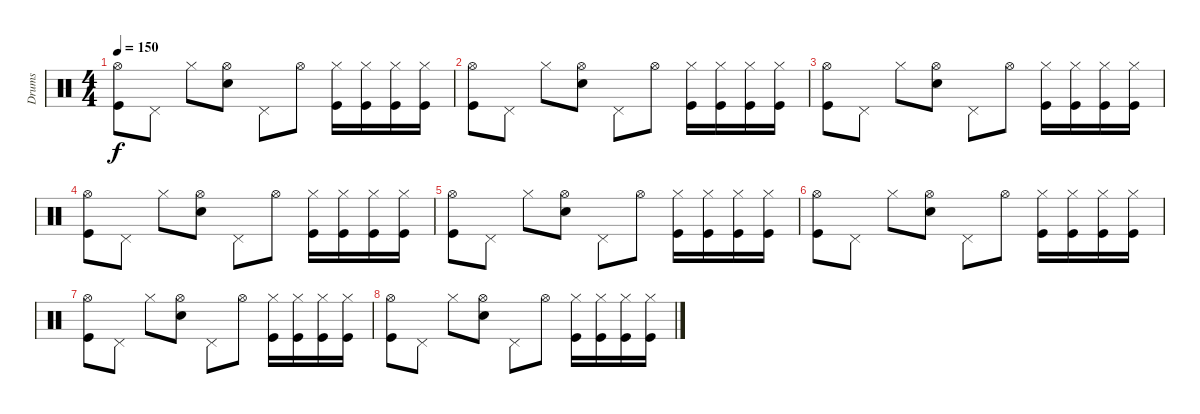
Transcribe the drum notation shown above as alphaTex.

\track ("Drums" "Drums") {instrument percussion}
\staff {score}
\articulation defaults
\ts (4 4)
\tempo 150
\clef neutral
\ks c
("Kick (hit)" "Hi-Hat (open)").8{dy f volume 6} "Pedal Hi-Hat (hit)".8 "Hi-Hat (closed)".8 ("Electric Snare (hit)" "Hi-Hat (open)").8 "Pedal Hi-Hat (hit)".8 "Hi-Hat (open)".8 ("Kick (hit)" "Hi-Hat (closed)").16 ("Kick (hit)" "Hi-Hat (closed)").16 ("Kick (hit)" "Hi-Hat (closed)").16 ("Kick (hit)" "Hi-Hat (closed)").16 |
("Kick (hit)" "Hi-Hat (open)").8 "Pedal Hi-Hat (hit)".8 "Hi-Hat (closed)".8 ("Electric Snare (hit)" "Hi-Hat (open)").8 "Pedal Hi-Hat (hit)".8 "Hi-Hat (open)".8 ("Kick (hit)" "Hi-Hat (closed)").16 ("Kick (hit)" "Hi-Hat (closed)").16 ("Kick (hit)" "Hi-Hat (closed)").16 ("Kick (hit)" "Hi-Hat (closed)").16 |
("Kick (hit)" "Hi-Hat (open)").8{volume 4} "Pedal Hi-Hat (hit)".8 "Hi-Hat (closed)".8 ("Electric Snare (hit)" "Hi-Hat (open)").8 "Pedal Hi-Hat (hit)".8 "Hi-Hat (open)".8 ("Kick (hit)" "Hi-Hat (closed)").16 ("Kick (hit)" "Hi-Hat (closed)").16 ("Kick (hit)" "Hi-Hat (closed)").16 ("Kick (hit)" "Hi-Hat (closed)").16 |
("Kick (hit)" "Hi-Hat (open)").8 "Pedal Hi-Hat (hit)".8 "Hi-Hat (closed)".8 ("Electric Snare (hit)" "Hi-Hat (open)").8 "Pedal Hi-Hat (hit)".8 "Hi-Hat (open)".8 ("Kick (hit)" "Hi-Hat (closed)").16 ("Kick (hit)" "Hi-Hat (closed)").16 ("Kick (hit)" "Hi-Hat (closed)").16 ("Kick (hit)" "Hi-Hat (closed)").16 |
("Kick (hit)" "Hi-Hat (open)").8{volume 2} "Pedal Hi-Hat (hit)".8 "Hi-Hat (closed)".8 ("Electric Snare (hit)" "Hi-Hat (open)").8 "Pedal Hi-Hat (hit)".8 "Hi-Hat (open)".8 ("Kick (hit)" "Hi-Hat (closed)").16 ("Kick (hit)" "Hi-Hat (closed)").16 ("Kick (hit)" "Hi-Hat (closed)").16 ("Kick (hit)" "Hi-Hat (closed)").16 |
("Kick (hit)" "Hi-Hat (open)").8 "Pedal Hi-Hat (hit)".8 "Hi-Hat (closed)".8 ("Electric Snare (hit)" "Hi-Hat (open)").8 "Pedal Hi-Hat (hit)".8 "Hi-Hat (open)".8 ("Kick (hit)" "Hi-Hat (closed)").16 ("Kick (hit)" "Hi-Hat (closed)").16 ("Kick (hit)" "Hi-Hat (closed)").16 ("Kick (hit)" "Hi-Hat (closed)").16 |
("Kick (hit)" "Hi-Hat (open)").8{volume 0} "Pedal Hi-Hat (hit)".8 "Hi-Hat (closed)".8 ("Electric Snare (hit)" "Hi-Hat (open)").8 "Pedal Hi-Hat (hit)".8 "Hi-Hat (open)".8 ("Kick (hit)" "Hi-Hat (closed)").16 ("Kick (hit)" "Hi-Hat (closed)").16 ("Kick (hit)" "Hi-Hat (closed)").16 ("Kick (hit)" "Hi-Hat (closed)").16 |
("Kick (hit)" "Hi-Hat (open)").8 "Pedal Hi-Hat (hit)".8 "Hi-Hat (closed)".8 ("Electric Snare (hit)" "Hi-Hat (open)").8 "Pedal Hi-Hat (hit)".8 "Hi-Hat (open)".8 ("Kick (hit)" "Hi-Hat (closed)").16 ("Kick (hit)" "Hi-Hat (closed)").16 ("Kick (hit)" "Hi-Hat (closed)").16 ("Kick (hit)" "Hi-Hat (closed)").16
